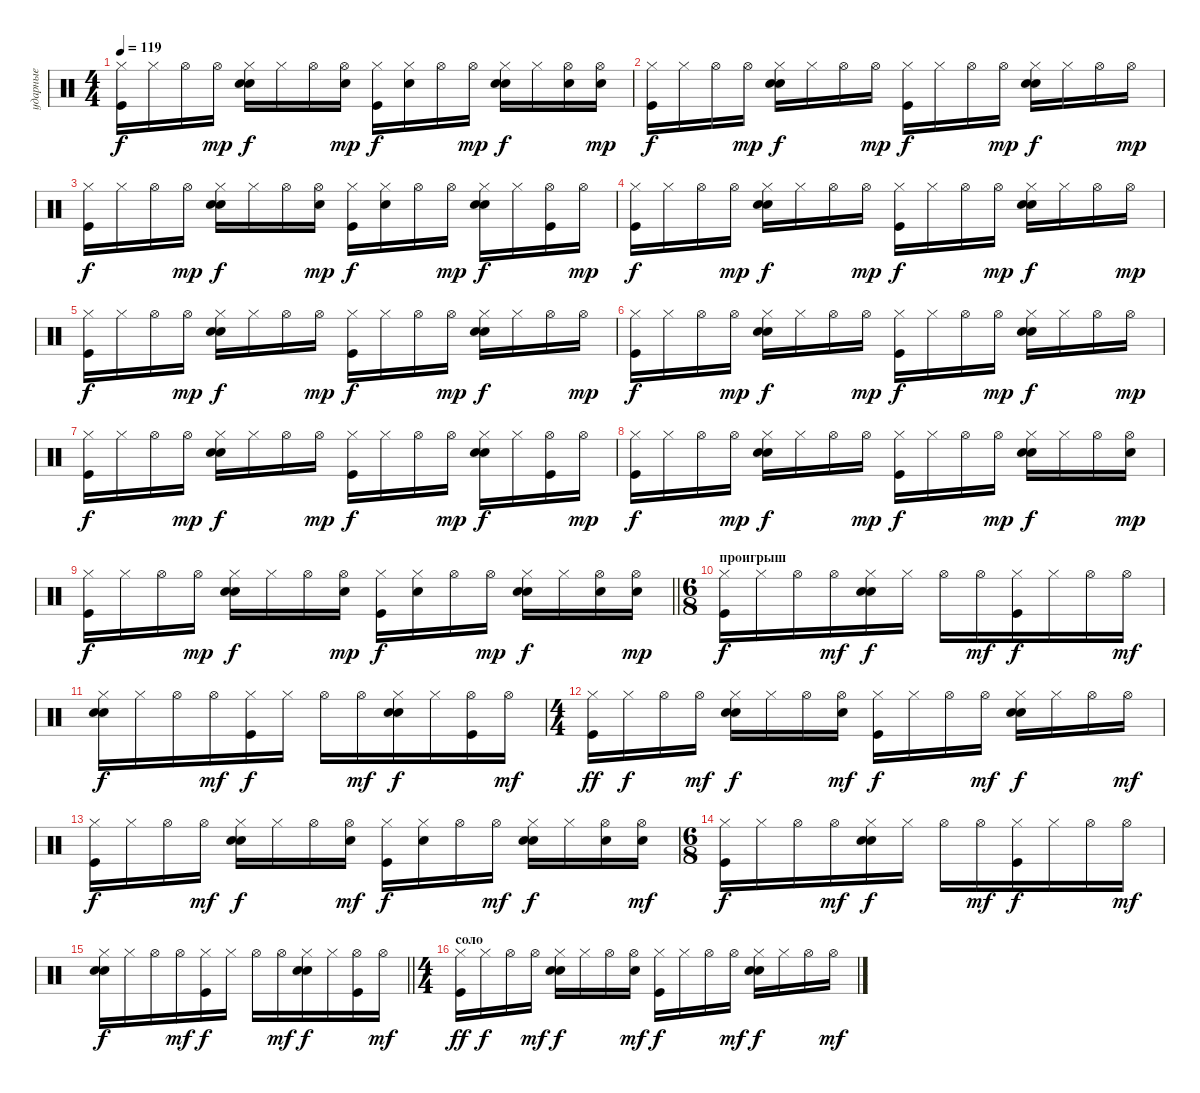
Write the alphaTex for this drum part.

\track ("ударные" "ударные") {instrument percussion}
\staff {score}
\articulation defaults
\ts (4 4)
\tempo 119
\clef neutral
\ks c
("Hi-Hat (closed)" "Kick (hit)").16{dy f} "Hi-Hat (closed)".16 "Hi-Hat (open)".16 "Hi-Hat (open)".16{dy mp} ("Hi-Hat (closed)" "Electric Snare (hit)" "Hand Clap (hit)").16{dy f} "Hi-Hat (closed)".16 "Hi-Hat (open)".16 ("Electric Snare (hit)" "Hi-Hat (open)").16{dy mp} ("Kick (hit)" "Hi-Hat (closed)").16{dy f} ("Electric Snare (hit)" "Hi-Hat (closed)").16 "Hi-Hat (open)".16 "Hi-Hat (open)".16{dy mp} ("Hi-Hat (closed)" "Electric Snare (hit)" "Hand Clap (hit)").16{dy f} "Hi-Hat (closed)".16 ("Electric Snare (hit)" "Hi-Hat (open)").16 ("Electric Snare (hit)" "Hi-Hat (open)").16{dy mp} |
("Hi-Hat (closed)" "Kick (hit)").16{dy f} "Hi-Hat (closed)".16 "Hi-Hat (open)".16 "Hi-Hat (open)".16{dy mp} ("Hi-Hat (closed)" "Electric Snare (hit)" "Hand Clap (hit)").16{dy f} "Hi-Hat (closed)".16 "Hi-Hat (open)".16 "Hi-Hat (open)".16{dy mp} ("Kick (hit)" "Hi-Hat (closed)").16{dy f} "Hi-Hat (closed)".16 "Hi-Hat (open)".16 "Hi-Hat (open)".16{dy mp} ("Hi-Hat (closed)" "Electric Snare (hit)" "Hand Clap (hit)").16{dy f} "Hi-Hat (closed)".16 "Hi-Hat (open)".16 "Hi-Hat (open)".16{dy mp} |
("Hi-Hat (closed)" "Kick (hit)").16{dy f} "Hi-Hat (closed)".16 "Hi-Hat (open)".16 "Hi-Hat (open)".16{dy mp} ("Hi-Hat (closed)" "Electric Snare (hit)" "Hand Clap (hit)").16{dy f} "Hi-Hat (closed)".16 "Hi-Hat (open)".16 ("Electric Snare (hit)" "Hi-Hat (open)").16{dy mp} ("Kick (hit)" "Hi-Hat (closed)").16{dy f} ("Electric Snare (hit)" "Hi-Hat (closed)").16 "Hi-Hat (open)".16 "Hi-Hat (open)".16{dy mp} ("Hi-Hat (closed)" "Electric Snare (hit)" "Hand Clap (hit)").16{dy f} "Hi-Hat (closed)".16 ("Kick (hit)" "Hi-Hat (open)").16 "Hi-Hat (open)".16{dy mp} |
("Hi-Hat (closed)" "Kick (hit)").16{dy f} "Hi-Hat (closed)".16 "Hi-Hat (open)".16 "Hi-Hat (open)".16{dy mp} ("Hi-Hat (closed)" "Electric Snare (hit)" "Hand Clap (hit)").16{dy f} "Hi-Hat (closed)".16 "Hi-Hat (open)".16 "Hi-Hat (open)".16{dy mp} ("Kick (hit)" "Hi-Hat (closed)").16{dy f} "Hi-Hat (closed)".16 "Hi-Hat (open)".16 "Hi-Hat (open)".16{dy mp} ("Hi-Hat (closed)" "Electric Snare (hit)" "Hand Clap (hit)").16{dy f} "Hi-Hat (closed)".16 "Hi-Hat (open)".16 "Hi-Hat (open)".16{dy mp} |
("Hi-Hat (closed)" "Kick (hit)").16{dy f} "Hi-Hat (closed)".16 "Hi-Hat (open)".16 "Hi-Hat (open)".16{dy mp} ("Hi-Hat (closed)" "Electric Snare (hit)" "Hand Clap (hit)").16{dy f} "Hi-Hat (closed)".16 "Hi-Hat (open)".16 "Hi-Hat (open)".16{dy mp} ("Kick (hit)" "Hi-Hat (closed)").16{dy f} "Hi-Hat (closed)".16 "Hi-Hat (open)".16 "Hi-Hat (open)".16{dy mp} ("Hi-Hat (closed)" "Electric Snare (hit)" "Hand Clap (hit)").16{dy f} "Hi-Hat (closed)".16 "Hi-Hat (open)".16 "Hi-Hat (open)".16{dy mp} |
("Hi-Hat (closed)" "Kick (hit)").16{dy f} "Hi-Hat (closed)".16 "Hi-Hat (open)".16 "Hi-Hat (open)".16{dy mp} ("Hi-Hat (closed)" "Electric Snare (hit)" "Hand Clap (hit)").16{dy f} "Hi-Hat (closed)".16 "Hi-Hat (open)".16 "Hi-Hat (open)".16{dy mp} ("Kick (hit)" "Hi-Hat (closed)").16{dy f} "Hi-Hat (closed)".16 "Hi-Hat (open)".16 "Hi-Hat (open)".16{dy mp} ("Hi-Hat (closed)" "Electric Snare (hit)" "Hand Clap (hit)").16{dy f} "Hi-Hat (closed)".16 "Hi-Hat (open)".16 "Hi-Hat (open)".16{dy mp} |
("Hi-Hat (closed)" "Kick (hit)").16{dy f} "Hi-Hat (closed)".16 "Hi-Hat (open)".16 "Hi-Hat (open)".16{dy mp} ("Electric Snare (hit)" "Hi-Hat (closed)" "Hand Clap (hit)").16{dy f} "Hi-Hat (closed)".16 "Hi-Hat (open)".16 "Hi-Hat (open)".16{dy mp} ("Kick (hit)" "Hi-Hat (closed)").16{dy f} "Hi-Hat (closed)".16 "Hi-Hat (open)".16 "Hi-Hat (open)".16{dy mp} ("Hi-Hat (closed)" "Electric Snare (hit)" "Hand Clap (hit)").16{dy f} "Hi-Hat (closed)".16 ("Kick (hit)" "Hi-Hat (open)").16 "Hi-Hat (open)".16{dy mp} |
("Hi-Hat (closed)" "Kick (hit)").16{dy f} "Hi-Hat (closed)".16 "Hi-Hat (open)".16 "Hi-Hat (open)".16{dy mp} ("Hi-Hat (closed)" "Electric Snare (hit)" "Hand Clap (hit)").16{dy f} "Hi-Hat (closed)".16 "Hi-Hat (open)".16 "Hi-Hat (open)".16{dy mp} ("Kick (hit)" "Hi-Hat (closed)").16{dy f} "Hi-Hat (closed)".16 "Hi-Hat (open)".16 "Hi-Hat (open)".16{dy mp} ("Hi-Hat (closed)" "Electric Snare (hit)" "Hand Clap (hit)").16{dy f} "Hi-Hat (closed)".16 "Hi-Hat (open)".16 ("Electric Snare (hit)" "Hi-Hat (open)").16{dy mp} |
\barLineRight lightlight
("Hi-Hat (closed)" "Kick (hit)").16{dy f} "Hi-Hat (closed)".16 "Hi-Hat (open)".16 "Hi-Hat (open)".16{dy mp} ("Hi-Hat (closed)" "Electric Snare (hit)" "Hand Clap (hit)").16{dy f} "Hi-Hat (closed)".16 "Hi-Hat (open)".16 ("Electric Snare (hit)" "Hi-Hat (open)").16{dy mp} ("Kick (hit)" "Hi-Hat (closed)").16{dy f} ("Electric Snare (hit)" "Hi-Hat (closed)").16 "Hi-Hat (open)".16 "Hi-Hat (open)".16{dy mp} ("Hi-Hat (closed)" "Electric Snare (hit)" "Hand Clap (hit)").16{dy f} "Hi-Hat (closed)".16 ("Electric Snare (hit)" "Hi-Hat (open)").16 ("Electric Snare (hit)" "Hi-Hat (open)").16{dy mp} |
\ts (6 8)
\section ("" "проигрыш")
("Hi-Hat (closed)" "Kick (hit)").16{dy f} "Hi-Hat (closed)".16 "Hi-Hat (open)".16 "Hi-Hat (open)".16{dy mf} ("Electric Snare (hit)" "Hi-Hat (closed)" "Hand Clap (hit)").16{dy f} "Hi-Hat (closed)".16 "Hi-Hat (open)".16 "Hi-Hat (open)".16{dy mf} ("Kick (hit)" "Hi-Hat (closed)").16{dy f} "Hi-Hat (closed)".16 "Hi-Hat (open)".16 "Hi-Hat (open)".16{dy mf} |
("Electric Snare (hit)" "Hi-Hat (closed)" "Hand Clap (hit)").16{dy f} "Hi-Hat (closed)".16 "Hi-Hat (open)".16 "Hi-Hat (open)".16{dy mf} ("Kick (hit)" "Hi-Hat (closed)").16{dy f} "Hi-Hat (closed)".16 "Hi-Hat (open)".16 "Hi-Hat (open)".16{dy mf} ("Electric Snare (hit)" "Hi-Hat (closed)" "Hand Clap (hit)").16{dy f} "Hi-Hat (closed)".16 ("Kick (hit)" "Hi-Hat (open)").16 "Hi-Hat (open)".16{dy mf} |
\ts (4 4)
("Kick (hit)" "Hi-Hat (closed)").16{dy ff} "Hi-Hat (closed)".16{dy f} "Hi-Hat (open)".16 "Hi-Hat (open)".16{dy mf} ("Electric Snare (hit)" "Hi-Hat (closed)" "Hand Clap (hit)").16{dy f} "Hi-Hat (closed)".16 "Hi-Hat (open)".16 ("Hi-Hat (open)" "Electric Snare (hit)").16{dy mf} ("Hi-Hat (closed)" "Kick (hit)").16{dy f} "Hi-Hat (closed)".16 "Hi-Hat (open)".16 "Hi-Hat (open)".16{dy mf} ("Electric Snare (hit)" "Hi-Hat (closed)" "Hand Clap (hit)").16{dy f} "Hi-Hat (closed)".16 "Hi-Hat (open)".16 "Hi-Hat (open)".16{dy mf} |
("Kick (hit)" "Hi-Hat (closed)").16{dy f} "Hi-Hat (closed)".16 "Hi-Hat (open)".16 "Hi-Hat (open)".16{dy mf} ("Electric Snare (hit)" "Hi-Hat (closed)" "Hand Clap (hit)").16{dy f} "Hi-Hat (closed)".16 "Hi-Hat (open)".16 ("Hi-Hat (open)" "Electric Snare (hit)").16{dy mf} ("Hi-Hat (closed)" "Kick (hit)").16{dy f} ("Electric Snare (hit)" "Hi-Hat (closed)").16 "Hi-Hat (open)".16 "Hi-Hat (open)".16{dy mf} ("Electric Snare (hit)" "Hi-Hat (closed)" "Hand Clap (hit)").16{dy f} "Hi-Hat (closed)".16 ("Electric Snare (hit)" "Hi-Hat (open)").16 ("Electric Snare (hit)" "Hi-Hat (open)").16{dy mf} |
\ts (6 8)
("Hi-Hat (closed)" "Kick (hit)").16{dy f} "Hi-Hat (closed)".16 "Hi-Hat (open)".16 "Hi-Hat (open)".16{dy mf} ("Electric Snare (hit)" "Hi-Hat (closed)" "Hand Clap (hit)").16{dy f} "Hi-Hat (closed)".16 "Hi-Hat (open)".16 "Hi-Hat (open)".16{dy mf} ("Kick (hit)" "Hi-Hat (closed)").16{dy f} "Hi-Hat (closed)".16 "Hi-Hat (open)".16 "Hi-Hat (open)".16{dy mf} |
\barLineRight lightlight
("Electric Snare (hit)" "Hi-Hat (closed)" "Hand Clap (hit)").16{dy f} "Hi-Hat (closed)".16 "Hi-Hat (open)".16 "Hi-Hat (open)".16{dy mf} ("Kick (hit)" "Hi-Hat (closed)").16{dy f} "Hi-Hat (closed)".16 "Hi-Hat (open)".16 "Hi-Hat (open)".16{dy mf} ("Electric Snare (hit)" "Hi-Hat (closed)" "Hand Clap (hit)").16{dy f} "Hi-Hat (closed)".16 ("Kick (hit)" "Hi-Hat (open)").16 "Hi-Hat (open)".16{dy mf} |
\ts (4 4)
\section ("" "соло")
("Kick (hit)" "Hi-Hat (closed)").16{dy ff} "Hi-Hat (closed)".16{dy f} "Hi-Hat (open)".16 "Hi-Hat (open)".16{dy mf} ("Electric Snare (hit)" "Hi-Hat (closed)" "Hand Clap (hit)").16{dy f} "Hi-Hat (closed)".16 "Hi-Hat (open)".16 ("Hi-Hat (open)" "Electric Snare (hit)").16{dy mf} ("Hi-Hat (closed)" "Kick (hit)").16{dy f} "Hi-Hat (closed)".16 "Hi-Hat (open)".16 "Hi-Hat (open)".16{dy mf} ("Electric Snare (hit)" "Hi-Hat (closed)" "Hand Clap (hit)").16{dy f} "Hi-Hat (closed)".16 "Hi-Hat (open)".16 "Hi-Hat (open)".16{dy mf}
